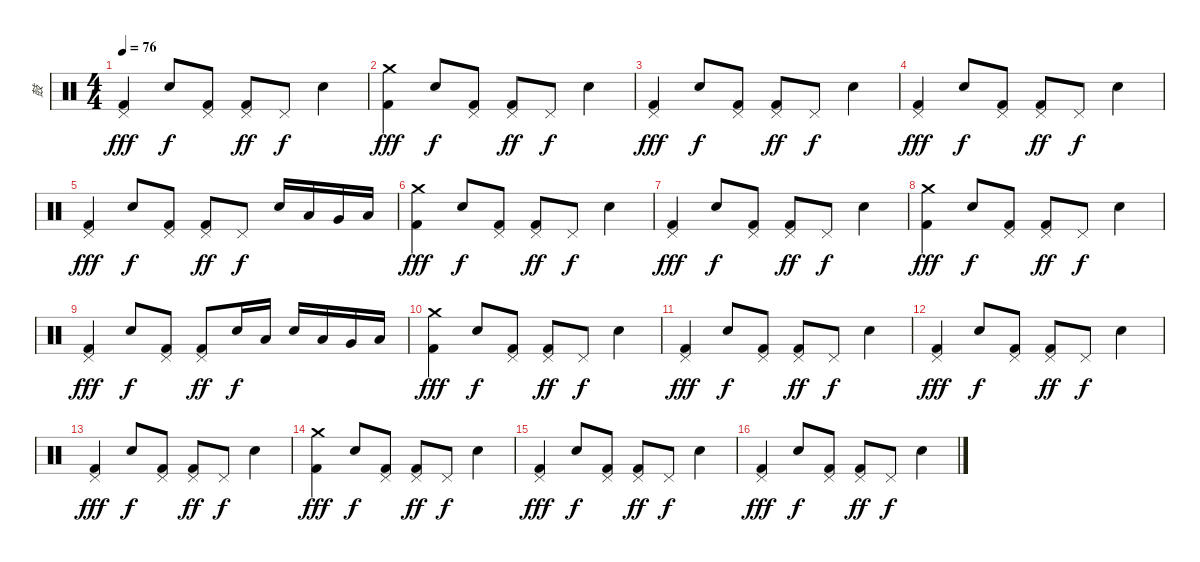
\track ("鼓" "鼓") {instrument percussion}
\staff {score}
\articulation defaults
\ts (4 4)
\tempo 76
\clef neutral
\ks c
("Kick (hit) 2" "Pedal Hi-Hat (hit)").4{dy fff} "Electric Snare (hit)".8{dy f} ("Kick (hit) 2" "Pedal Hi-Hat (hit)").8 ("Kick (hit) 2" "Pedal Hi-Hat (hit)").8{dy ff} "Pedal Hi-Hat (hit)".8{dy f} "Electric Snare (hit)".4 |
("Kick (hit) 2" "Crash medium (hit)").4{dy fff} "Electric Snare (hit)".8{dy f} ("Kick (hit) 2" "Pedal Hi-Hat (hit)").8 ("Kick (hit) 2" "Pedal Hi-Hat (hit)").8{dy ff} "Pedal Hi-Hat (hit)".8{dy f} "Electric Snare (hit)".4 |
("Kick (hit) 2" "Pedal Hi-Hat (hit)").4{dy fff} "Electric Snare (hit)".8{dy f} ("Kick (hit) 2" "Pedal Hi-Hat (hit)").8 ("Kick (hit) 2" "Pedal Hi-Hat (hit)").8{dy ff} "Pedal Hi-Hat (hit)".8{dy f} "Electric Snare (hit)".4 |
("Kick (hit) 2" "Pedal Hi-Hat (hit)").4{dy fff} "Electric Snare (hit)".8{dy f} ("Kick (hit) 2" "Pedal Hi-Hat (hit)").8 ("Kick (hit) 2" "Pedal Hi-Hat (hit)").8{dy ff} "Pedal Hi-Hat (hit)".8{dy f} "Electric Snare (hit)".4 |
("Kick (hit) 2" "Pedal Hi-Hat (hit)").4{dy fff} "Electric Snare (hit)".8{dy f} ("Kick (hit) 2" "Pedal Hi-Hat (hit)").8 ("Kick (hit) 2" "Pedal Hi-Hat (hit)").8{dy ff} "Pedal Hi-Hat (hit)".8{dy f} "Electric Snare (hit)".16 "Low Tom (hit)".16 "Very Low Tom (hit)".16 "Low Floor Tom (hit)".16 |
("Kick (hit) 2" "Crash medium (hit)").4{dy fff} "Electric Snare (hit)".8{dy f} ("Kick (hit) 2" "Pedal Hi-Hat (hit)").8 ("Kick (hit) 2" "Pedal Hi-Hat (hit)").8{dy ff} "Pedal Hi-Hat (hit)".8{dy f} "Electric Snare (hit)".4 |
("Kick (hit) 2" "Pedal Hi-Hat (hit)").4{dy fff} "Electric Snare (hit)".8{dy f} ("Kick (hit) 2" "Pedal Hi-Hat (hit)").8 ("Kick (hit) 2" "Pedal Hi-Hat (hit)").8{dy ff} "Pedal Hi-Hat (hit)".8{dy f} "Electric Snare (hit)".4 |
("Kick (hit) 2" "Crash medium (hit)").4{dy fff} "Electric Snare (hit)".8{dy f} ("Kick (hit) 2" "Pedal Hi-Hat (hit)").8 ("Kick (hit) 2" "Pedal Hi-Hat (hit)").8{dy ff} "Pedal Hi-Hat (hit)".8{dy f} "Electric Snare (hit)".4 |
("Kick (hit) 2" "Pedal Hi-Hat (hit)").4{dy fff} "Electric Snare (hit)".8{dy f} ("Kick (hit) 2" "Pedal Hi-Hat (hit)").8 ("Kick (hit) 2" "Pedal Hi-Hat (hit)").8{dy ff} "Electric Snare (hit)".16{dy f} "Low Tom (hit)".16 "Electric Snare (hit)".16 "Low Tom (hit)".16 "Very Low Tom (hit)".16 "Low Floor Tom (hit)".16 |
("Kick (hit) 2" "Crash medium (hit)").4{dy fff} "Electric Snare (hit)".8{dy f} ("Kick (hit) 2" "Pedal Hi-Hat (hit)").8 ("Kick (hit) 2" "Pedal Hi-Hat (hit)").8{dy ff} "Pedal Hi-Hat (hit)".8{dy f} "Electric Snare (hit)".4 |
("Kick (hit) 2" "Pedal Hi-Hat (hit)").4{dy fff} "Electric Snare (hit)".8{dy f} ("Kick (hit) 2" "Pedal Hi-Hat (hit)").8 ("Kick (hit) 2" "Pedal Hi-Hat (hit)").8{dy ff} "Pedal Hi-Hat (hit)".8{dy f} "Electric Snare (hit)".4 |
("Kick (hit) 2" "Pedal Hi-Hat (hit)").4{dy fff} "Electric Snare (hit)".8{dy f} ("Kick (hit) 2" "Pedal Hi-Hat (hit)").8 ("Kick (hit) 2" "Pedal Hi-Hat (hit)").8{dy ff} "Pedal Hi-Hat (hit)".8{dy f} "Electric Snare (hit)".4 |
("Kick (hit) 2" "Pedal Hi-Hat (hit)").4{dy fff} "Electric Snare (hit)".8{dy f} ("Kick (hit) 2" "Pedal Hi-Hat (hit)").8 ("Kick (hit) 2" "Pedal Hi-Hat (hit)").8{dy ff} "Pedal Hi-Hat (hit)".8{dy f} "Electric Snare (hit)".4 |
("Kick (hit) 2" "Crash medium (hit)").4{dy fff} "Electric Snare (hit)".8{dy f} ("Kick (hit) 2" "Pedal Hi-Hat (hit)").8 ("Kick (hit) 2" "Pedal Hi-Hat (hit)").8{dy ff} "Pedal Hi-Hat (hit)".8{dy f} "Electric Snare (hit)".4 |
("Kick (hit) 2" "Pedal Hi-Hat (hit)").4{dy fff} "Electric Snare (hit)".8{dy f} ("Kick (hit) 2" "Pedal Hi-Hat (hit)").8 ("Kick (hit) 2" "Pedal Hi-Hat (hit)").8{dy ff} "Pedal Hi-Hat (hit)".8{dy f} "Electric Snare (hit)".4 |
("Kick (hit) 2" "Pedal Hi-Hat (hit)").4{dy fff} "Electric Snare (hit)".8{dy f} ("Kick (hit) 2" "Pedal Hi-Hat (hit)").8 ("Kick (hit) 2" "Pedal Hi-Hat (hit)").8{dy ff} "Pedal Hi-Hat (hit)".8{dy f} "Electric Snare (hit)".4
